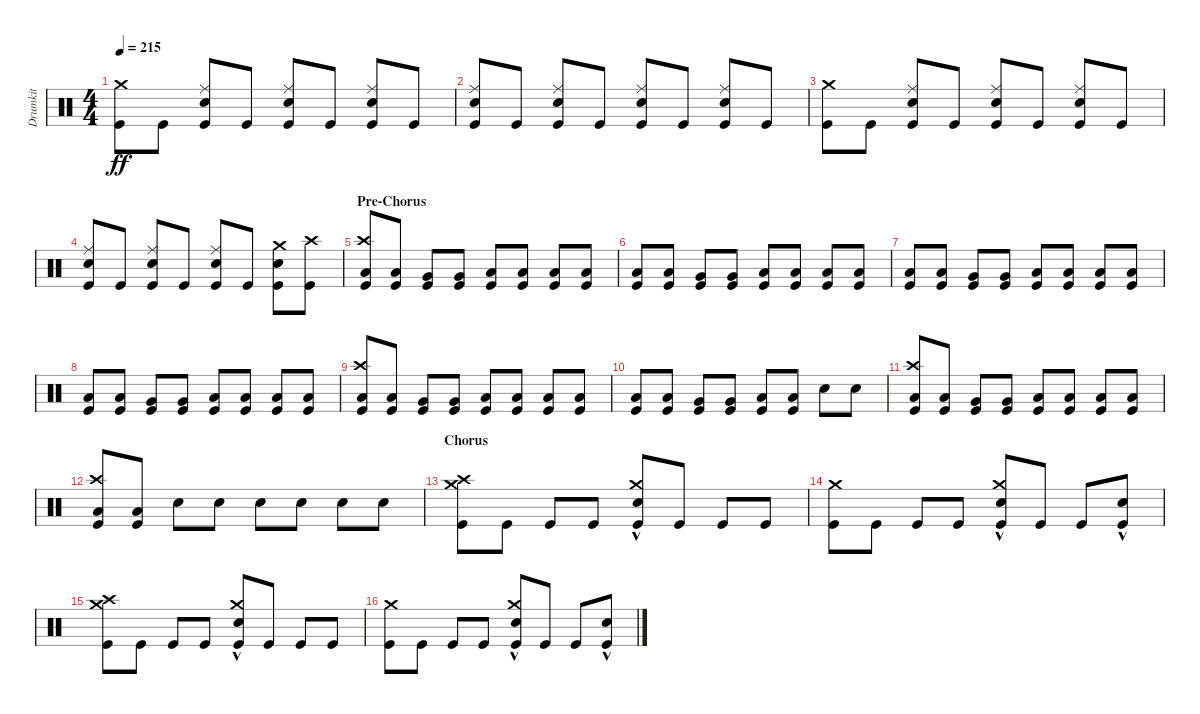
\track ("Drumkit" "Drumkit") {instrument percussion}
\staff {score}
\articulation defaults
\ts (4 4)
\tempo 215
\clef neutral
\ks c
("Kick (hit)" "Crash medium (hit)").8{dy ff} "Kick (hit)".8 ("Kick (hit)" "Ride (middle)" "Snare (hit) 2").8 "Kick (hit)".8 ("Kick (hit)" "Snare (hit) 2" "Ride (middle)").8 "Kick (hit)".8 ("Kick (hit)" "Ride (middle)" "Snare (hit) 2").8 "Kick (hit)".8 |
("Kick (hit)" "Ride (middle)" "Snare (hit) 2").8 "Kick (hit)".8 ("Kick (hit)" "Ride (middle)" "Snare (hit) 2").8 "Kick (hit)".8 ("Kick (hit)" "Snare (hit) 2" "Ride (middle)").8 "Kick (hit)".8 ("Kick (hit)" "Ride (middle)" "Snare (hit) 2").8 "Kick (hit)".8 |
("Kick (hit)" "Crash medium (hit)").8 "Kick (hit)".8 ("Kick (hit)" "Ride (middle)" "Snare (hit) 2").8 "Kick (hit)".8 ("Kick (hit)" "Snare (hit) 2" "Ride (middle)").8 "Kick (hit)".8 ("Kick (hit)" "Ride (middle)" "Snare (hit) 2").8 "Kick (hit)".8 |
("Kick (hit)" "Ride (middle)" "Snare (hit) 2").8 "Kick (hit)".8 ("Kick (hit)" "Ride (middle)" "Snare (hit) 2").8 "Kick (hit)".8 ("Kick (hit)" "Snare (hit) 2" "Ride (middle)").8 "Kick (hit)".8 ("Kick (hit)" "Snare (hit) 2" "Crash medium (hit)").8 ("Kick (hit)" "Crash high (hit)").8 |
\section ("" "Pre-Chorus")
("Crash high (hit)" "Low Tom (hit)" "Kick (hit)").8 ("Low Tom (hit)" "Kick (hit)").8 ("Very Low Tom (hit)" "Kick (hit)").8 ("Very Low Tom (hit)" "Kick (hit)").8 ("Low Floor Tom (hit)" "Kick (hit)").8 ("Low Floor Tom (hit)" "Kick (hit)").8 ("Low Floor Tom (hit)" "Kick (hit)").8 ("Low Floor Tom (hit)" "Kick (hit)").8 |
("Low Tom (hit)" "Kick (hit)").8 ("Low Tom (hit)" "Kick (hit)").8 ("Very Low Tom (hit)" "Kick (hit)").8 ("Very Low Tom (hit)" "Kick (hit)").8 ("Low Floor Tom (hit)" "Kick (hit)").8 ("Low Floor Tom (hit)" "Kick (hit)").8 ("Low Floor Tom (hit)" "Kick (hit)").8 ("Low Floor Tom (hit)" "Kick (hit)").8 |
("Low Tom (hit)" "Kick (hit)").8 ("Low Tom (hit)" "Kick (hit)").8 ("Very Low Tom (hit)" "Kick (hit)").8 ("Very Low Tom (hit)" "Kick (hit)").8 ("Low Floor Tom (hit)" "Kick (hit)").8 ("Low Floor Tom (hit)" "Kick (hit)").8 ("Low Floor Tom (hit)" "Kick (hit)").8 ("Low Floor Tom (hit)" "Kick (hit)").8 |
("Low Tom (hit)" "Kick (hit)").8 ("Low Tom (hit)" "Kick (hit)").8 ("Very Low Tom (hit)" "Kick (hit)").8 ("Very Low Tom (hit)" "Kick (hit)").8 ("Low Floor Tom (hit)" "Kick (hit)").8 ("Low Floor Tom (hit)" "Kick (hit)").8 ("Low Floor Tom (hit)" "Kick (hit)").8 ("Low Floor Tom (hit)" "Kick (hit)").8 |
("Crash high (hit)" "Low Tom (hit)" "Kick (hit)").8 ("Low Tom (hit)" "Kick (hit)").8 ("Very Low Tom (hit)" "Kick (hit)").8 ("Very Low Tom (hit)" "Kick (hit)").8 ("Low Floor Tom (hit)" "Kick (hit)").8 ("Low Floor Tom (hit)" "Kick (hit)").8 ("Low Floor Tom (hit)" "Kick (hit)").8 ("Low Floor Tom (hit)" "Kick (hit)").8 |
("Low Tom (hit)" "Kick (hit)").8 ("Low Tom (hit)" "Kick (hit)").8 ("Very Low Tom (hit)" "Kick (hit)").8 ("Very Low Tom (hit)" "Kick (hit)").8 ("Low Floor Tom (hit)" "Kick (hit)").8 ("Low Floor Tom (hit)" "Kick (hit)").8 "Snare (hit) 2".8 "Snare (hit) 2".8 |
("Crash high (hit)" "Low Tom (hit)" "Kick (hit)").8 ("Low Tom (hit)" "Kick (hit)").8 ("Very Low Tom (hit)" "Kick (hit)").8 ("Very Low Tom (hit)" "Kick (hit)").8 ("Low Floor Tom (hit)" "Kick (hit)").8 ("Low Floor Tom (hit)" "Kick (hit)").8 ("Low Floor Tom (hit)" "Kick (hit)").8 ("Low Floor Tom (hit)" "Kick (hit)").8 |
("Crash high (hit)" "Low Tom (hit)" "Kick (hit)").8 ("Low Tom (hit)" "Kick (hit)").8 "Snare (hit) 2".8 "Snare (hit) 2".8 "Snare (hit) 2".8 "Snare (hit) 2".8 "Snare (hit) 2".8 "Snare (hit) 2".8 |
\section ("" "Chorus")
("Kick (hit)" "Crash medium (hit)" "Crash high (hit)").8 "Kick (hit)".8 "Kick (hit)".8 "Kick (hit)".8 ("Kick (hit)" "Crash medium (hit)" "Snare (hit) 2"{hac}).8 "Kick (hit)".8 "Kick (hit)".8 "Kick (hit)".8 |
("Kick (hit)" "Crash medium (hit)").8 "Kick (hit)".8 "Kick (hit)".8 "Kick (hit)".8 ("Kick (hit)" "Crash medium (hit)" "Snare (hit) 2"{hac}).8 "Kick (hit)".8 "Kick (hit)".8 ("Kick (hit)" "Snare (hit) 2"{hac}).8 |
("Kick (hit)" "Crash medium (hit)" "Crash high (hit)").8 "Kick (hit)".8 "Kick (hit)".8 "Kick (hit)".8 ("Kick (hit)" "Crash medium (hit)" "Snare (hit) 2"{hac}).8 "Kick (hit)".8 "Kick (hit)".8 "Kick (hit)".8 |
("Kick (hit)" "Crash medium (hit)").8 "Kick (hit)".8 "Kick (hit)".8 "Kick (hit)".8 ("Kick (hit)" "Crash medium (hit)" "Snare (hit) 2"{hac}).8 "Kick (hit)".8 "Kick (hit)".8 ("Kick (hit)" "Snare (hit) 2"{hac}).8
